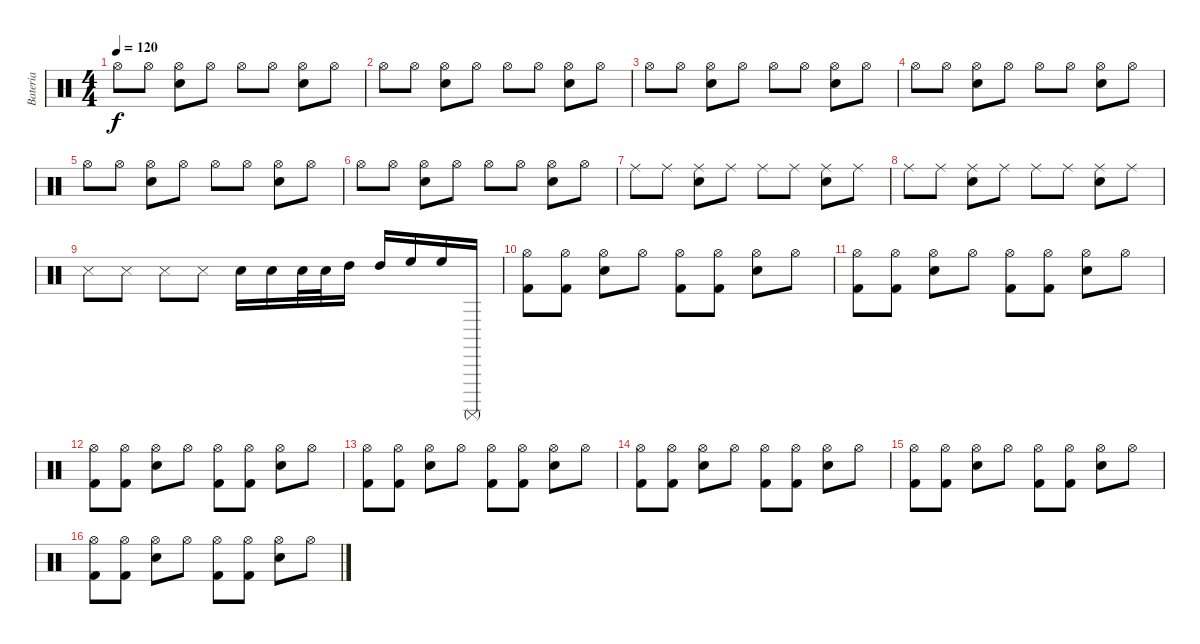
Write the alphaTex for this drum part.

\track ("Bateria" "Bateria") {instrument percussion}
\staff {score}
\articulation defaults
\ts (4 4)
\tempo 120
\clef neutral
\ks c "Hi-Hat (open)".8{dy f} "Hi-Hat (open)".8
("Hi-Hat (open)" "Electric Snare (hit)").8 "Hi-Hat (open)".8 "Hi-Hat (open)".8 "Hi-Hat (open)".8 ("Hi-Hat (open)" "Electric Snare (hit)").8 "Hi-Hat (open)".8 |
"Hi-Hat (open)".8 "Hi-Hat (open)".8 ("Hi-Hat (open)" "Electric Snare (hit)").8 "Hi-Hat (open)".8 "Hi-Hat (open)".8 "Hi-Hat (open)".8 ("Hi-Hat (open)" "Electric Snare (hit)").8 "Hi-Hat (open)".8 |
"Hi-Hat (open)".8 "Hi-Hat (open)".8 ("Hi-Hat (open)" "Electric Snare (hit)").8 "Hi-Hat (open)".8 "Hi-Hat (open)".8 "Hi-Hat (open)".8 ("Hi-Hat (open)" "Electric Snare (hit)").8 "Hi-Hat (open)".8 |
"Hi-Hat (open)".8 "Hi-Hat (open)".8 ("Hi-Hat (open)" "Electric Snare (hit)").8 "Hi-Hat (open)".8 "Hi-Hat (open)".8 "Hi-Hat (open)".8 ("Hi-Hat (open)" "Electric Snare (hit)").8 "Hi-Hat (open)".8 |
"Hi-Hat (open)".8 "Hi-Hat (open)".8 ("Hi-Hat (open)" "Electric Snare (hit)").8 "Hi-Hat (open)".8 "Hi-Hat (open)".8 "Hi-Hat (open)".8 ("Hi-Hat (open)" "Electric Snare (hit)").8 "Hi-Hat (open)".8 |
"Hi-Hat (open)".8 "Hi-Hat (open)".8 ("Hi-Hat (open)" "Electric Snare (hit)").8 "Hi-Hat (open)".8 "Hi-Hat (open)".8 "Hi-Hat (open)".8 ("Hi-Hat (open)" "Electric Snare (hit)").8 "Hi-Hat (open)".8 |
"Ride (middle)".8 "Ride (middle)".8 ("Ride (middle)" "Electric Snare (hit)").8 "Ride (middle)".8 "Ride (middle)".8 "Ride (middle)".8 ("Ride (middle)" "Electric Snare (hit)").8 "Ride (middle)".8 |
"Ride (middle)".8 "Ride (middle)".8 ("Ride (middle)" "Electric Snare (hit)").8 "Ride (middle)".8 "Ride (middle)".8 "Ride (middle)".8 ("Ride (middle)" "Electric Snare (hit)").8 "Ride (middle)".8 |
"Snare (side stick) 3".8 "Snare (side stick) 3".8 "Snare (side stick) 3".8 "Snare (side stick) 3".8 "Electric Snare (hit)".16 "Electric Snare (hit)".16 "Electric Snare (hit)".32 "Electric Snare (hit)".32 "High Tom (hit)".16 "High Tom (hit)".16 "High Floor Tom (hit)".16 "High Floor Tom (hit)".16 "Surdo (mute)".16 |
("Hi-Hat (open)" "Kick (hit) 2").8 ("Hi-Hat (open)" "Kick (hit) 2").8 ("Hi-Hat (open)" "Electric Snare (hit)").8 "Hi-Hat (open)".8 ("Hi-Hat (open)" "Kick (hit) 2").8 ("Hi-Hat (open)" "Kick (hit) 2").8 ("Hi-Hat (open)" "Electric Snare (hit)").8 "Hi-Hat (open)".8 |
("Hi-Hat (open)" "Kick (hit) 2").8 ("Hi-Hat (open)" "Kick (hit) 2").8 ("Hi-Hat (open)" "Electric Snare (hit)").8 "Hi-Hat (open)".8 ("Hi-Hat (open)" "Kick (hit) 2").8 ("Hi-Hat (open)" "Kick (hit) 2").8 ("Hi-Hat (open)" "Electric Snare (hit)").8 "Hi-Hat (open)".8 |
("Hi-Hat (open)" "Kick (hit) 2").8 ("Hi-Hat (open)" "Kick (hit) 2").8 ("Hi-Hat (open)" "Electric Snare (hit)").8 "Hi-Hat (open)".8 ("Hi-Hat (open)" "Kick (hit) 2").8 ("Hi-Hat (open)" "Kick (hit) 2").8 ("Hi-Hat (open)" "Electric Snare (hit)").8 "Hi-Hat (open)".8 |
("Hi-Hat (open)" "Kick (hit) 2").8 ("Hi-Hat (open)" "Kick (hit) 2").8 ("Hi-Hat (open)" "Electric Snare (hit)").8 "Hi-Hat (open)".8 ("Hi-Hat (open)" "Kick (hit) 2").8 ("Hi-Hat (open)" "Kick (hit) 2").8 ("Hi-Hat (open)" "Electric Snare (hit)").8 "Hi-Hat (open)".8 |
("Hi-Hat (open)" "Kick (hit) 2").8 ("Hi-Hat (open)" "Kick (hit) 2").8 ("Hi-Hat (open)" "Electric Snare (hit)").8 "Hi-Hat (open)".8 ("Hi-Hat (open)" "Kick (hit) 2").8 ("Hi-Hat (open)" "Kick (hit) 2").8 ("Hi-Hat (open)" "Electric Snare (hit)").8 "Hi-Hat (open)".8 |
("Hi-Hat (open)" "Kick (hit) 2").8 ("Hi-Hat (open)" "Kick (hit) 2").8 ("Hi-Hat (open)" "Electric Snare (hit)").8 "Hi-Hat (open)".8 ("Hi-Hat (open)" "Kick (hit) 2").8 ("Hi-Hat (open)" "Kick (hit) 2").8 ("Hi-Hat (open)" "Electric Snare (hit)").8 "Hi-Hat (open)".8 |
("Hi-Hat (open)" "Kick (hit) 2").8 ("Hi-Hat (open)" "Kick (hit) 2").8 ("Hi-Hat (open)" "Electric Snare (hit)").8 "Hi-Hat (open)".8 ("Hi-Hat (open)" "Kick (hit) 2").8 ("Hi-Hat (open)" "Kick (hit) 2").8 ("Hi-Hat (open)" "Electric Snare (hit)").8 "Hi-Hat (open)".8
